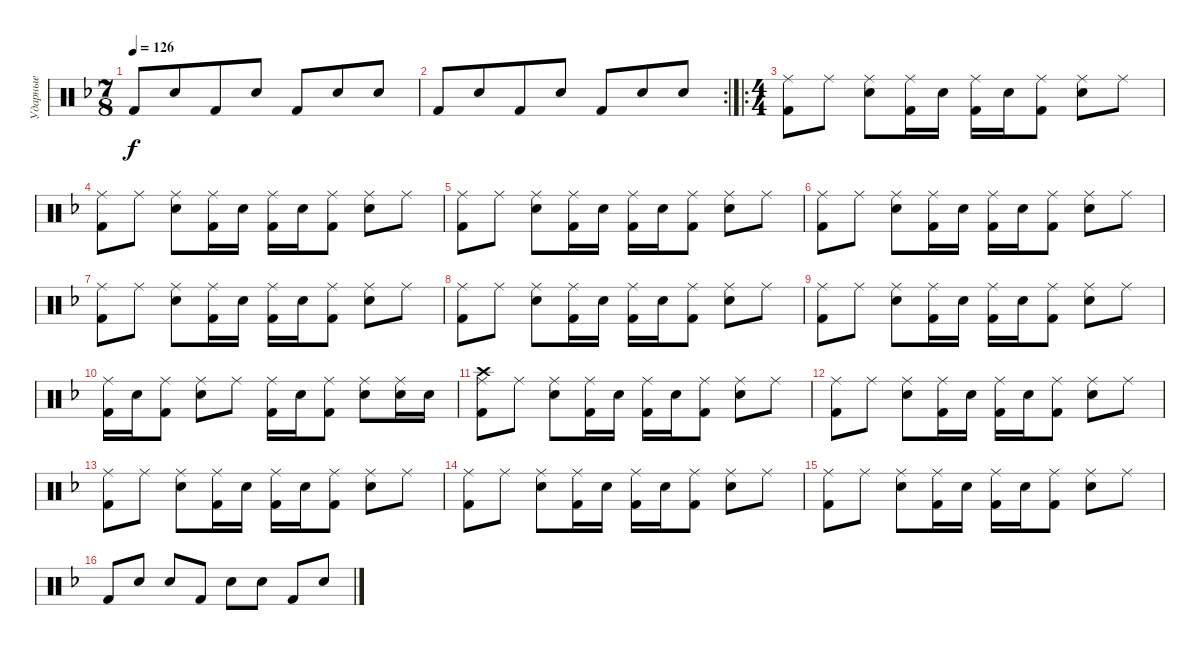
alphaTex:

\track ("Ударные" "Ударные") {instrument percussion}
\staff {score}
\articulation defaults
\ts (7 8)
\tempo 126
\clef neutral
\ks dminor "Kick (hit) 2".8{dy f} "Electric Snare (hit)".8 "Kick (hit) 2".8 "Electric Snare (hit)".8 "Kick (hit) 2".8 "Electric Snare (hit)".8 "Electric Snare (hit)".8
|
\rc 2 "Kick (hit) 2".8 "Electric Snare (hit)".8 "Kick (hit) 2".8 "Electric Snare (hit)".8 "Kick (hit) 2".8 "Electric Snare (hit)".8 "Electric Snare (hit)".8
|
\ro
\ts (4 4)
("Ride (middle)" "Kick (hit) 2").8 "Ride (middle)".8 ("Ride (middle)" "Electric Snare (hit)").8 ("Ride (middle)" "Kick (hit) 2").16 "Electric Snare (hit)".16 ("Ride (middle)" "Kick (hit) 2").16 "Electric Snare (hit)".16 ("Ride (middle)" "Kick (hit) 2").8 ("Ride (middle)" "Electric Snare (hit)").8 "Ride (middle)".8 |
("Ride (middle)" "Kick (hit) 2").8 "Ride (middle)".8 ("Ride (middle)" "Electric Snare (hit)").8 ("Ride (middle)" "Kick (hit) 2").16 "Electric Snare (hit)".16 ("Ride (middle)" "Kick (hit) 2").16 "Electric Snare (hit)".16 ("Ride (middle)" "Kick (hit) 2").8 ("Ride (middle)" "Electric Snare (hit)").8 "Ride (middle)".8 |
("Ride (middle)" "Kick (hit) 2").8 "Ride (middle)".8 ("Ride (middle)" "Electric Snare (hit)").8 ("Ride (middle)" "Kick (hit) 2").16 "Electric Snare (hit)".16 ("Ride (middle)" "Kick (hit) 2").16 "Electric Snare (hit)".16 ("Ride (middle)" "Kick (hit) 2").8 ("Ride (middle)" "Electric Snare (hit)").8 "Ride (middle)".8 |
("Ride (middle)" "Kick (hit) 2").8 "Ride (middle)".8 ("Ride (middle)" "Electric Snare (hit)").8 ("Ride (middle)" "Kick (hit) 2").16 "Electric Snare (hit)".16 ("Ride (middle)" "Kick (hit) 2").16 "Electric Snare (hit)".16 ("Ride (middle)" "Kick (hit) 2").8 ("Ride (middle)" "Electric Snare (hit)").8 "Ride (middle)".8 |
("Ride (middle)" "Kick (hit) 2").8 "Ride (middle)".8 ("Ride (middle)" "Electric Snare (hit)").8 ("Ride (middle)" "Kick (hit) 2").16 "Electric Snare (hit)".16 ("Ride (middle)" "Kick (hit) 2").16 "Electric Snare (hit)".16 ("Ride (middle)" "Kick (hit) 2").8 ("Ride (middle)" "Electric Snare (hit)").8 "Ride (middle)".8 |
("Ride (middle)" "Kick (hit) 2").8 "Ride (middle)".8 ("Ride (middle)" "Electric Snare (hit)").8 ("Ride (middle)" "Kick (hit) 2").16 "Electric Snare (hit)".16 ("Ride (middle)" "Kick (hit) 2").16 "Electric Snare (hit)".16 ("Ride (middle)" "Kick (hit) 2").8 ("Ride (middle)" "Electric Snare (hit)").8 "Ride (middle)".8 |
("Ride (middle)" "Kick (hit) 2").8 "Ride (middle)".8 ("Ride (middle)" "Electric Snare (hit)").8 ("Ride (middle)" "Kick (hit) 2").16 "Electric Snare (hit)".16 ("Ride (middle)" "Kick (hit) 2").16 "Electric Snare (hit)".16 ("Ride (middle)" "Kick (hit) 2").8 ("Ride (middle)" "Electric Snare (hit)").8 "Ride (middle)".8 |
("Ride (middle)" "Kick (hit) 2").16 "Electric Snare (hit)".16 ("Ride (middle)" "Kick (hit) 2").8 ("Ride (middle)" "Electric Snare (hit)").8 "Ride (middle)".8 ("Ride (middle)" "Kick (hit) 2").16 "Electric Snare (hit)".16 ("Ride (middle)" "Kick (hit) 2").8 ("Ride (middle)" "Electric Snare (hit)").8 ("Ride (middle)" "Electric Snare (hit)").16 "Electric Snare (hit)".16 |
("Ride (middle)" "Crash high (hit)" "Kick (hit) 2").8 "Ride (middle)".8 ("Ride (middle)" "Electric Snare (hit)").8 ("Ride (middle)" "Kick (hit) 2").16 "Electric Snare (hit)".16 ("Ride (middle)" "Kick (hit) 2").16 "Electric Snare (hit)".16 ("Ride (middle)" "Kick (hit) 2").8 ("Ride (middle)" "Electric Snare (hit)").8 "Ride (middle)".8 |
("Ride (middle)" "Kick (hit) 2").8 "Ride (middle)".8 ("Ride (middle)" "Electric Snare (hit)").8 ("Ride (middle)" "Kick (hit) 2").16 "Electric Snare (hit)".16 ("Ride (middle)" "Kick (hit) 2").16 "Electric Snare (hit)".16 ("Ride (middle)" "Kick (hit) 2").8 ("Ride (middle)" "Electric Snare (hit)").8 "Ride (middle)".8 |
("Ride (middle)" "Kick (hit) 2").8 "Ride (middle)".8 ("Ride (middle)" "Electric Snare (hit)").8 ("Ride (middle)" "Kick (hit) 2").16 "Electric Snare (hit)".16 ("Ride (middle)" "Kick (hit) 2").16 "Electric Snare (hit)".16 ("Ride (middle)" "Kick (hit) 2").8 ("Ride (middle)" "Electric Snare (hit)").8 "Ride (middle)".8 |
("Ride (middle)" "Kick (hit) 2").8 "Ride (middle)".8 ("Ride (middle)" "Electric Snare (hit)").8 ("Ride (middle)" "Kick (hit) 2").16 "Electric Snare (hit)".16 ("Ride (middle)" "Kick (hit) 2").16 "Electric Snare (hit)".16 ("Ride (middle)" "Kick (hit) 2").8 ("Ride (middle)" "Electric Snare (hit)").8 "Ride (middle)".8 |
("Ride (middle)" "Kick (hit) 2").8 "Ride (middle)".8 ("Ride (middle)" "Electric Snare (hit)").8 ("Ride (middle)" "Kick (hit) 2").16 "Electric Snare (hit)".16 ("Ride (middle)" "Kick (hit) 2").16 "Electric Snare (hit)".16 ("Ride (middle)" "Kick (hit) 2").8 ("Ride (middle)" "Electric Snare (hit)").8 "Ride (middle)".8 |
"Kick (hit) 2".8 "Electric Snare (hit)".8 "Electric Snare (hit)".8 "Kick (hit) 2".8 "Electric Snare (hit)".8 "Electric Snare (hit)".8 "Kick (hit) 2".8 "Electric Snare (hit)".8
